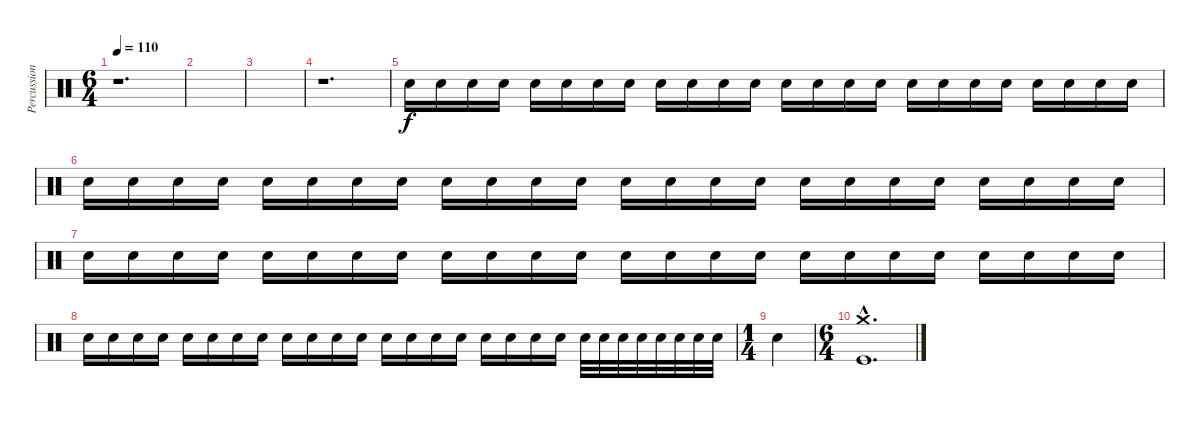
\track ("Percussion" "Percussion") {instrument percussion}
\staff {score}
\articulation defaults
\ts (6 4)
\tempo 110
\clef neutral
\ks c
r.1{d dy f} |
|
|
r.1{d volume 0} |
"Electric Snare (hit)".16{volume 4} "Electric Snare (hit)".16 "Electric Snare (hit)".16 "Electric Snare (hit)".16 "Electric Snare (hit)".16 "Electric Snare (hit)".16 "Electric Snare (hit)".16 "Electric Snare (hit)".16 "Electric Snare (hit)".16 "Electric Snare (hit)".16 "Electric Snare (hit)".16 "Electric Snare (hit)".16 "Electric Snare (hit)".16 "Electric Snare (hit)".16 "Electric Snare (hit)".16 "Electric Snare (hit)".16 "Electric Snare (hit)".16 "Electric Snare (hit)".16 "Electric Snare (hit)".16 "Electric Snare (hit)".16 "Electric Snare (hit)".16 "Electric Snare (hit)".16 "Electric Snare (hit)".16 "Electric Snare (hit)".16 |
"Electric Snare (hit)".16{volume 8} "Electric Snare (hit)".16 "Electric Snare (hit)".16 "Electric Snare (hit)".16 "Electric Snare (hit)".16 "Electric Snare (hit)".16 "Electric Snare (hit)".16 "Electric Snare (hit)".16 "Electric Snare (hit)".16 "Electric Snare (hit)".16 "Electric Snare (hit)".16 "Electric Snare (hit)".16 "Electric Snare (hit)".16 "Electric Snare (hit)".16 "Electric Snare (hit)".16 "Electric Snare (hit)".16 "Electric Snare (hit)".16 "Electric Snare (hit)".16 "Electric Snare (hit)".16 "Electric Snare (hit)".16 "Electric Snare (hit)".16 "Electric Snare (hit)".16 "Electric Snare (hit)".16 "Electric Snare (hit)".16 |
"Electric Snare (hit)".16{volume 10} "Electric Snare (hit)".16 "Electric Snare (hit)".16 "Electric Snare (hit)".16 "Electric Snare (hit)".16 "Electric Snare (hit)".16 "Electric Snare (hit)".16 "Electric Snare (hit)".16 "Electric Snare (hit)".16 "Electric Snare (hit)".16 "Electric Snare (hit)".16 "Electric Snare (hit)".16 "Electric Snare (hit)".16 "Electric Snare (hit)".16 "Electric Snare (hit)".16 "Electric Snare (hit)".16 "Electric Snare (hit)".16 "Electric Snare (hit)".16 "Electric Snare (hit)".16 "Electric Snare (hit)".16 "Electric Snare (hit)".16 "Electric Snare (hit)".16 "Electric Snare (hit)".16 "Electric Snare (hit)".16 |
"Electric Snare (hit)".16{volume 16} "Electric Snare (hit)".16 "Electric Snare (hit)".16 "Electric Snare (hit)".16 "Electric Snare (hit)".16 "Electric Snare (hit)".16 "Electric Snare (hit)".16 "Electric Snare (hit)".16 "Electric Snare (hit)".16 "Electric Snare (hit)".16 "Electric Snare (hit)".16 "Electric Snare (hit)".16 "Electric Snare (hit)".16 "Electric Snare (hit)".16 "Electric Snare (hit)".16 "Electric Snare (hit)".16 "Electric Snare (hit)".16 "Electric Snare (hit)".16 "Electric Snare (hit)".16 "Electric Snare (hit)".16 "Electric Snare (hit)".32 "Electric Snare (hit)".32 "Electric Snare (hit)".32 "Electric Snare (hit)".32 "Electric Snare (hit)".32 "Electric Snare (hit)".32 "Electric Snare (hit)".32 "Electric Snare (hit)".32 |
\ts (1 4)
"Electric Snare (hit)".4 |
\ts (6 4)
("Crash medium (hit)"{hac} "Kick (hit)"{hac}).1{d}
